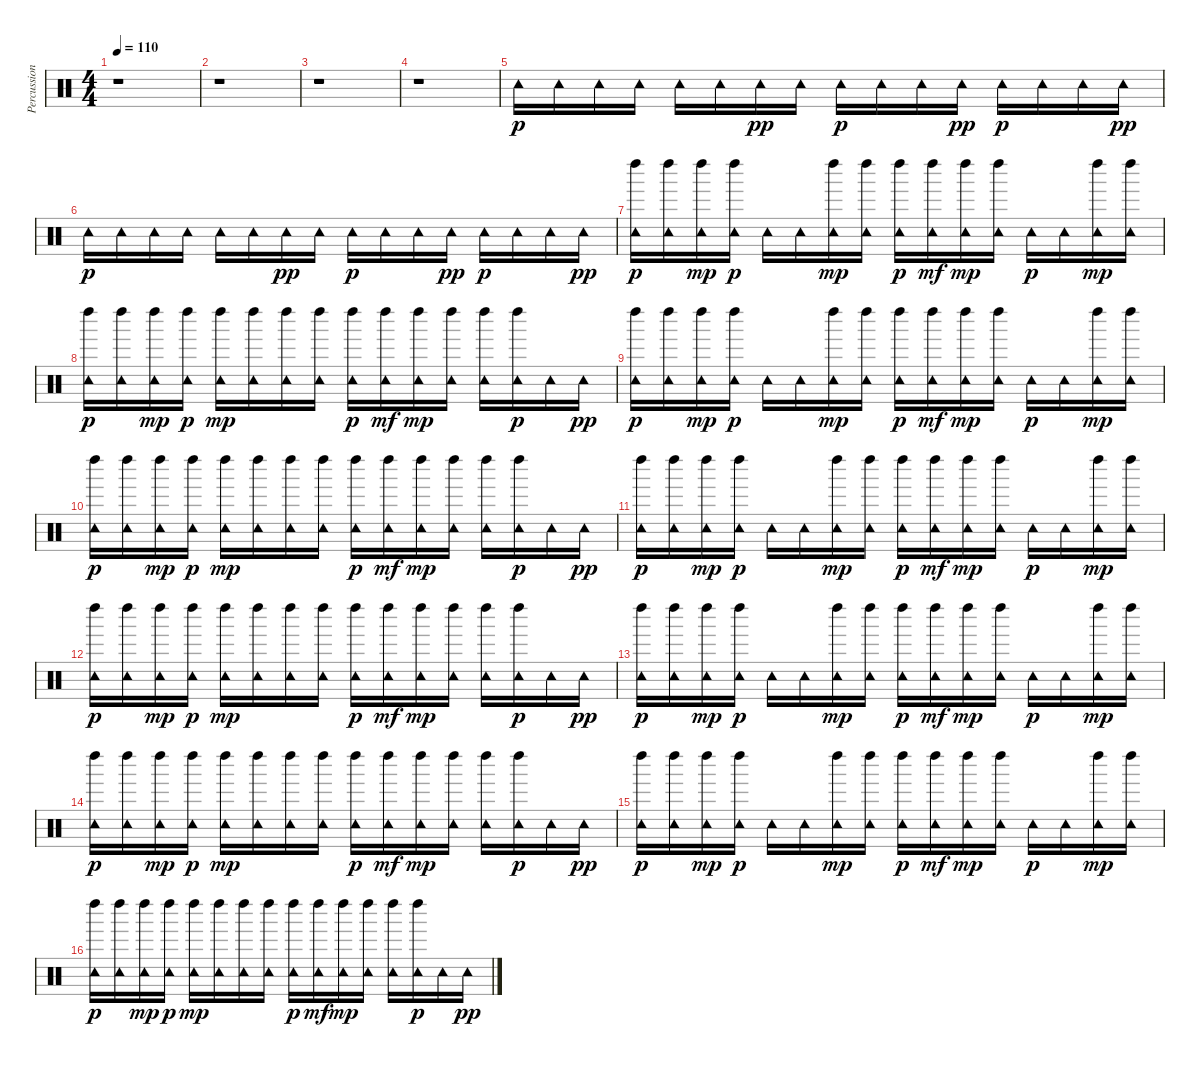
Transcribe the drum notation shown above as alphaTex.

\track ("Percussion" "Percussion") {instrument percussion}
\staff {score}
\articulation defaults
\ts (4 4)
\tempo 110
\clef neutral
\ks c
r.1{dy p} |
r.1 |
r.1 |
r.1 |
"Tambourine (hit)".16 "Tambourine (hit)".16 "Tambourine (hit)".16 "Tambourine (hit)".16 "Tambourine (hit)".16 "Tambourine (hit)".16 "Tambourine (hit)".16{dy pp} "Tambourine (hit)".16 "Tambourine (hit)".16{dy p} "Tambourine (hit)".16 "Tambourine (hit)".16 "Tambourine (hit)".16{dy pp} "Tambourine (hit)".16{dy p} "Tambourine (hit)".16 "Tambourine (hit)".16 "Tambourine (hit)".16{dy pp} |
"Tambourine (hit)".16{dy p} "Tambourine (hit)".16 "Tambourine (hit)".16 "Tambourine (hit)".16 "Tambourine (hit)".16 "Tambourine (hit)".16 "Tambourine (hit)".16{dy pp} "Tambourine (hit)".16 "Tambourine (hit)".16{dy p} "Tambourine (hit)".16 "Tambourine (hit)".16 "Tambourine (hit)".16{dy pp} "Tambourine (hit)".16{dy p} "Tambourine (hit)".16 "Tambourine (hit)".16 "Tambourine (hit)".16{dy pp} |
("Tambourine (hit)" "Left Maraca (hit)").16{dy p} ("Left Maraca (hit)" "Tambourine (hit)").16 ("Tambourine (hit)" "Left Maraca (hit)").16{dy mp} ("Left Maraca (hit)" "Tambourine (hit)").16{dy p} "Tambourine (hit)".16 "Tambourine (hit)".16 ("Tambourine (hit)" "Left Maraca (hit)").16{dy mp} ("Tambourine (hit)" "Left Maraca (hit)").16 ("Tambourine (hit)" "Left Maraca (hit)").16{dy p} ("Tambourine (hit)" "Left Maraca (hit)").16{dy mf} ("Tambourine (hit)" "Left Maraca (hit)").16{dy mp} ("Tambourine (hit)" "Left Maraca (hit)").16 "Tambourine (hit)".16{dy p} "Tambourine (hit)".16 ("Tambourine (hit)" "Left Maraca (hit)").16{dy mp} ("Tambourine (hit)" "Left Maraca (hit)").16 |
("Tambourine (hit)" "Left Maraca (hit)").16{dy p} ("Left Maraca (hit)" "Tambourine (hit)").16 ("Tambourine (hit)" "Left Maraca (hit)").16{dy mp} ("Left Maraca (hit)" "Tambourine (hit)").16{dy p} ("Tambourine (hit)" "Left Maraca (hit)").16{dy mp} ("Tambourine (hit)" "Left Maraca (hit)").16 ("Tambourine (hit)" "Left Maraca (hit)").16 ("Tambourine (hit)" "Left Maraca (hit)").16 ("Tambourine (hit)" "Left Maraca (hit)").16{dy p} ("Tambourine (hit)" "Left Maraca (hit)").16{dy mf} ("Tambourine (hit)" "Left Maraca (hit)").16{dy mp} ("Tambourine (hit)" "Left Maraca (hit)").16 ("Tambourine (hit)" "Left Maraca (hit)").16 ("Tambourine (hit)" "Left Maraca (hit)").16{dy p} "Tambourine (hit)".16 "Tambourine (hit)".16{dy pp} |
("Tambourine (hit)" "Left Maraca (hit)").16{dy p} ("Left Maraca (hit)" "Tambourine (hit)").16 ("Tambourine (hit)" "Left Maraca (hit)").16{dy mp} ("Left Maraca (hit)" "Tambourine (hit)").16{dy p} "Tambourine (hit)".16 "Tambourine (hit)".16 ("Tambourine (hit)" "Left Maraca (hit)").16{dy mp} ("Tambourine (hit)" "Left Maraca (hit)").16 ("Tambourine (hit)" "Left Maraca (hit)").16{dy p} ("Tambourine (hit)" "Left Maraca (hit)").16{dy mf} ("Tambourine (hit)" "Left Maraca (hit)").16{dy mp} ("Tambourine (hit)" "Left Maraca (hit)").16 "Tambourine (hit)".16{dy p} "Tambourine (hit)".16 ("Tambourine (hit)" "Left Maraca (hit)").16{dy mp} ("Tambourine (hit)" "Left Maraca (hit)").16 |
("Tambourine (hit)" "Left Maraca (hit)").16{dy p} ("Left Maraca (hit)" "Tambourine (hit)").16 ("Tambourine (hit)" "Left Maraca (hit)").16{dy mp} ("Left Maraca (hit)" "Tambourine (hit)").16{dy p} ("Tambourine (hit)" "Left Maraca (hit)").16{dy mp} ("Tambourine (hit)" "Left Maraca (hit)").16 ("Tambourine (hit)" "Left Maraca (hit)").16 ("Tambourine (hit)" "Left Maraca (hit)").16 ("Tambourine (hit)" "Left Maraca (hit)").16{dy p} ("Tambourine (hit)" "Left Maraca (hit)").16{dy mf} ("Tambourine (hit)" "Left Maraca (hit)").16{dy mp} ("Tambourine (hit)" "Left Maraca (hit)").16 ("Tambourine (hit)" "Left Maraca (hit)").16 ("Tambourine (hit)" "Left Maraca (hit)").16{dy p} "Tambourine (hit)".16 "Tambourine (hit)".16{dy pp} |
("Tambourine (hit)" "Left Maraca (hit)").16{dy p} ("Left Maraca (hit)" "Tambourine (hit)").16 ("Tambourine (hit)" "Left Maraca (hit)").16{dy mp} ("Left Maraca (hit)" "Tambourine (hit)").16{dy p} "Tambourine (hit)".16 "Tambourine (hit)".16 ("Tambourine (hit)" "Left Maraca (hit)").16{dy mp} ("Tambourine (hit)" "Left Maraca (hit)").16 ("Tambourine (hit)" "Left Maraca (hit)").16{dy p} ("Tambourine (hit)" "Left Maraca (hit)").16{dy mf} ("Tambourine (hit)" "Left Maraca (hit)").16{dy mp} ("Tambourine (hit)" "Left Maraca (hit)").16 "Tambourine (hit)".16{dy p} "Tambourine (hit)".16 ("Tambourine (hit)" "Left Maraca (hit)").16{dy mp} ("Tambourine (hit)" "Left Maraca (hit)").16 |
("Tambourine (hit)" "Left Maraca (hit)").16{dy p} ("Left Maraca (hit)" "Tambourine (hit)").16 ("Tambourine (hit)" "Left Maraca (hit)").16{dy mp} ("Left Maraca (hit)" "Tambourine (hit)").16{dy p} ("Tambourine (hit)" "Left Maraca (hit)").16{dy mp} ("Tambourine (hit)" "Left Maraca (hit)").16 ("Tambourine (hit)" "Left Maraca (hit)").16 ("Tambourine (hit)" "Left Maraca (hit)").16 ("Tambourine (hit)" "Left Maraca (hit)").16{dy p} ("Tambourine (hit)" "Left Maraca (hit)").16{dy mf} ("Tambourine (hit)" "Left Maraca (hit)").16{dy mp} ("Tambourine (hit)" "Left Maraca (hit)").16 ("Tambourine (hit)" "Left Maraca (hit)").16 ("Tambourine (hit)" "Left Maraca (hit)").16{dy p} "Tambourine (hit)".16 "Tambourine (hit)".16{dy pp} |
("Tambourine (hit)" "Left Maraca (hit)").16{dy p} ("Left Maraca (hit)" "Tambourine (hit)").16 ("Tambourine (hit)" "Left Maraca (hit)").16{dy mp} ("Left Maraca (hit)" "Tambourine (hit)").16{dy p} "Tambourine (hit)".16 "Tambourine (hit)".16 ("Tambourine (hit)" "Left Maraca (hit)").16{dy mp} ("Tambourine (hit)" "Left Maraca (hit)").16 ("Tambourine (hit)" "Left Maraca (hit)").16{dy p} ("Tambourine (hit)" "Left Maraca (hit)").16{dy mf} ("Tambourine (hit)" "Left Maraca (hit)").16{dy mp} ("Tambourine (hit)" "Left Maraca (hit)").16 "Tambourine (hit)".16{dy p} "Tambourine (hit)".16 ("Tambourine (hit)" "Left Maraca (hit)").16{dy mp} ("Tambourine (hit)" "Left Maraca (hit)").16 |
("Tambourine (hit)" "Left Maraca (hit)").16{dy p} ("Left Maraca (hit)" "Tambourine (hit)").16 ("Tambourine (hit)" "Left Maraca (hit)").16{dy mp} ("Left Maraca (hit)" "Tambourine (hit)").16{dy p} ("Tambourine (hit)" "Left Maraca (hit)").16{dy mp} ("Tambourine (hit)" "Left Maraca (hit)").16 ("Tambourine (hit)" "Left Maraca (hit)").16 ("Tambourine (hit)" "Left Maraca (hit)").16 ("Tambourine (hit)" "Left Maraca (hit)").16{dy p} ("Tambourine (hit)" "Left Maraca (hit)").16{dy mf} ("Tambourine (hit)" "Left Maraca (hit)").16{dy mp} ("Tambourine (hit)" "Left Maraca (hit)").16 ("Tambourine (hit)" "Left Maraca (hit)").16 ("Tambourine (hit)" "Left Maraca (hit)").16{dy p} "Tambourine (hit)".16 "Tambourine (hit)".16{dy pp} |
("Tambourine (hit)" "Left Maraca (hit)").16{dy p} ("Left Maraca (hit)" "Tambourine (hit)").16 ("Tambourine (hit)" "Left Maraca (hit)").16{dy mp} ("Left Maraca (hit)" "Tambourine (hit)").16{dy p} "Tambourine (hit)".16 "Tambourine (hit)".16 ("Tambourine (hit)" "Left Maraca (hit)").16{dy mp} ("Tambourine (hit)" "Left Maraca (hit)").16 ("Tambourine (hit)" "Left Maraca (hit)").16{dy p} ("Tambourine (hit)" "Left Maraca (hit)").16{dy mf} ("Tambourine (hit)" "Left Maraca (hit)").16{dy mp} ("Tambourine (hit)" "Left Maraca (hit)").16 "Tambourine (hit)".16{dy p} "Tambourine (hit)".16 ("Tambourine (hit)" "Left Maraca (hit)").16{dy mp} ("Tambourine (hit)" "Left Maraca (hit)").16 |
("Tambourine (hit)" "Left Maraca (hit)").16{dy p} ("Left Maraca (hit)" "Tambourine (hit)").16 ("Tambourine (hit)" "Left Maraca (hit)").16{dy mp} ("Left Maraca (hit)" "Tambourine (hit)").16{dy p} ("Tambourine (hit)" "Left Maraca (hit)").16{dy mp} ("Tambourine (hit)" "Left Maraca (hit)").16 ("Tambourine (hit)" "Left Maraca (hit)").16 ("Tambourine (hit)" "Left Maraca (hit)").16 ("Tambourine (hit)" "Left Maraca (hit)").16{dy p} ("Tambourine (hit)" "Left Maraca (hit)").16{dy mf} ("Tambourine (hit)" "Left Maraca (hit)").16{dy mp} ("Tambourine (hit)" "Left Maraca (hit)").16 ("Tambourine (hit)" "Left Maraca (hit)").16 ("Tambourine (hit)" "Left Maraca (hit)").16{dy p} "Tambourine (hit)".16 "Tambourine (hit)".16{dy pp}
